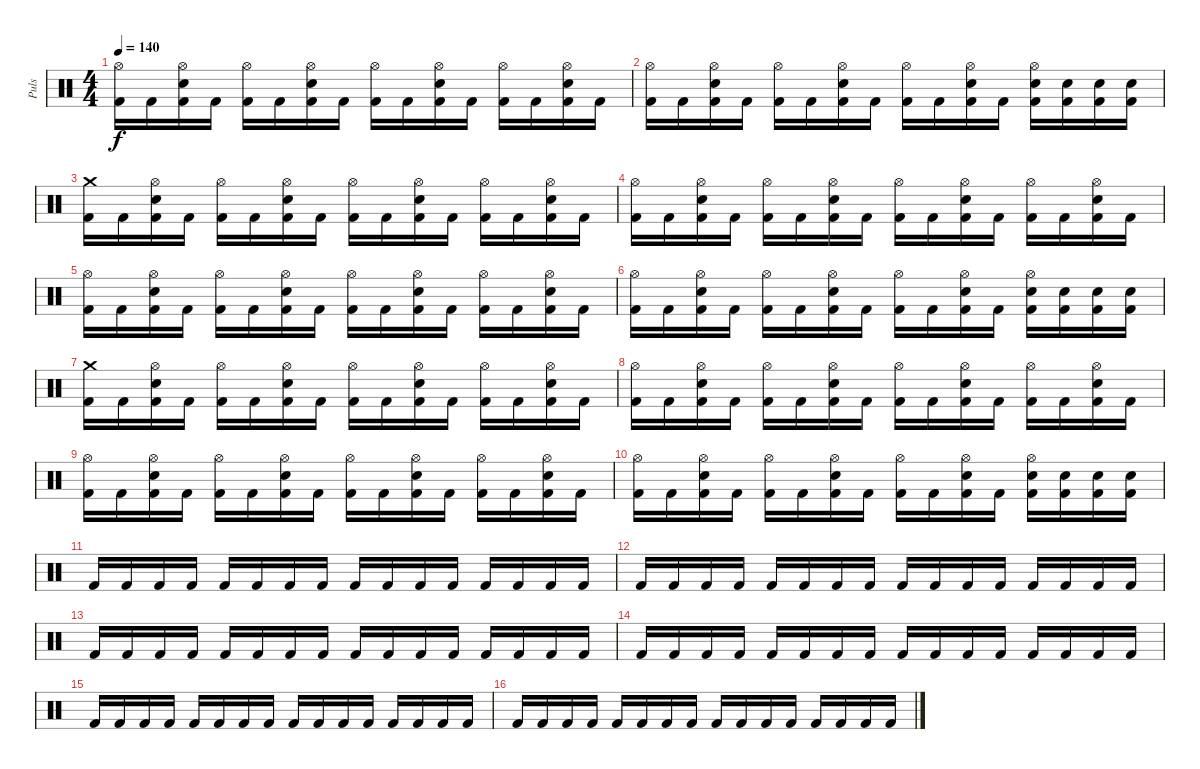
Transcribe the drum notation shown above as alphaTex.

\track ("Puls" "Puls") {instrument percussion}
\staff {score}
\articulation defaults
\ts (4 4)
\tempo 140
\clef neutral
\ks c
("Hi-Hat (open)" "Kick (hit) 2").16{dy f} "Kick (hit) 2".16 ("Hi-Hat (open)" "Snare (hit) 2" "Kick (hit) 2").16 "Kick (hit) 2".16 ("Hi-Hat (open)" "Kick (hit) 2").16 "Kick (hit) 2".16 ("Hi-Hat (open)" "Snare (hit) 2" "Kick (hit) 2").16 "Kick (hit) 2".16 ("Hi-Hat (open)" "Kick (hit) 2").16 "Kick (hit) 2".16 ("Hi-Hat (open)" "Snare (hit) 2" "Kick (hit) 2").16 "Kick (hit) 2".16 ("Hi-Hat (open)" "Kick (hit) 2").16 "Kick (hit) 2".16 ("Hi-Hat (open)" "Snare (hit) 2" "Kick (hit) 2").16 "Kick (hit) 2".16 |
("Hi-Hat (open)" "Kick (hit) 2").16 "Kick (hit) 2".16 ("Hi-Hat (open)" "Snare (hit) 2" "Kick (hit) 2").16 "Kick (hit) 2".16 ("Hi-Hat (open)" "Kick (hit) 2").16 "Kick (hit) 2".16 ("Hi-Hat (open)" "Snare (hit) 2" "Kick (hit) 2").16 "Kick (hit) 2".16 ("Hi-Hat (open)" "Kick (hit) 2").16 "Kick (hit) 2".16 ("Hi-Hat (open)" "Snare (hit) 2" "Kick (hit) 2").16 "Kick (hit) 2".16 ("Hi-Hat (open)" "Snare (hit) 2" "Kick (hit) 2").16 ("Snare (hit) 2" "Kick (hit) 2").16 ("Snare (hit) 2" "Kick (hit) 2").16 ("Snare (hit) 2" "Kick (hit) 2").16 |
("Crash medium (hit)" "Kick (hit) 2").16 "Kick (hit) 2".16 ("Hi-Hat (open)" "Snare (hit) 2" "Kick (hit) 2").16 "Kick (hit) 2".16 ("Hi-Hat (open)" "Kick (hit) 2").16 "Kick (hit) 2".16 ("Hi-Hat (open)" "Snare (hit) 2" "Kick (hit) 2").16 "Kick (hit) 2".16 ("Hi-Hat (open)" "Kick (hit) 2").16 "Kick (hit) 2".16 ("Hi-Hat (open)" "Snare (hit) 2" "Kick (hit) 2").16 "Kick (hit) 2".16 ("Hi-Hat (open)" "Kick (hit) 2").16 "Kick (hit) 2".16 ("Hi-Hat (open)" "Snare (hit) 2" "Kick (hit) 2").16 "Kick (hit) 2".16 |
("Hi-Hat (open)" "Kick (hit) 2").16 "Kick (hit) 2".16 ("Hi-Hat (open)" "Snare (hit) 2" "Kick (hit) 2").16 "Kick (hit) 2".16 ("Hi-Hat (open)" "Kick (hit) 2").16 "Kick (hit) 2".16 ("Hi-Hat (open)" "Snare (hit) 2" "Kick (hit) 2").16 "Kick (hit) 2".16 ("Hi-Hat (open)" "Kick (hit) 2").16 "Kick (hit) 2".16 ("Hi-Hat (open)" "Snare (hit) 2" "Kick (hit) 2").16 "Kick (hit) 2".16 ("Hi-Hat (open)" "Kick (hit) 2").16 "Kick (hit) 2".16 ("Hi-Hat (open)" "Snare (hit) 2" "Kick (hit) 2").16 "Kick (hit) 2".16 |
("Hi-Hat (open)" "Kick (hit) 2").16 "Kick (hit) 2".16 ("Hi-Hat (open)" "Snare (hit) 2" "Kick (hit) 2").16 "Kick (hit) 2".16 ("Hi-Hat (open)" "Kick (hit) 2").16 "Kick (hit) 2".16 ("Hi-Hat (open)" "Snare (hit) 2" "Kick (hit) 2").16 "Kick (hit) 2".16 ("Hi-Hat (open)" "Kick (hit) 2").16 "Kick (hit) 2".16 ("Hi-Hat (open)" "Snare (hit) 2" "Kick (hit) 2").16 "Kick (hit) 2".16 ("Hi-Hat (open)" "Kick (hit) 2").16 "Kick (hit) 2".16 ("Hi-Hat (open)" "Snare (hit) 2" "Kick (hit) 2").16 "Kick (hit) 2".16 |
("Hi-Hat (open)" "Kick (hit) 2").16 "Kick (hit) 2".16 ("Hi-Hat (open)" "Snare (hit) 2" "Kick (hit) 2").16 "Kick (hit) 2".16 ("Hi-Hat (open)" "Kick (hit) 2").16 "Kick (hit) 2".16 ("Hi-Hat (open)" "Snare (hit) 2" "Kick (hit) 2").16 "Kick (hit) 2".16 ("Hi-Hat (open)" "Kick (hit) 2").16 "Kick (hit) 2".16 ("Hi-Hat (open)" "Snare (hit) 2" "Kick (hit) 2").16 "Kick (hit) 2".16 ("Hi-Hat (open)" "Snare (hit) 2" "Kick (hit) 2").16 ("Snare (hit) 2" "Kick (hit) 2").16 ("Snare (hit) 2" "Kick (hit) 2").16 ("Snare (hit) 2" "Kick (hit) 2").16 |
("Crash medium (hit)" "Kick (hit) 2").16 "Kick (hit) 2".16 ("Hi-Hat (open)" "Snare (hit) 2" "Kick (hit) 2").16 "Kick (hit) 2".16 ("Hi-Hat (open)" "Kick (hit) 2").16 "Kick (hit) 2".16 ("Hi-Hat (open)" "Snare (hit) 2" "Kick (hit) 2").16 "Kick (hit) 2".16 ("Hi-Hat (open)" "Kick (hit) 2").16 "Kick (hit) 2".16 ("Hi-Hat (open)" "Snare (hit) 2" "Kick (hit) 2").16 "Kick (hit) 2".16 ("Hi-Hat (open)" "Kick (hit) 2").16 "Kick (hit) 2".16 ("Hi-Hat (open)" "Snare (hit) 2" "Kick (hit) 2").16 "Kick (hit) 2".16 |
("Hi-Hat (open)" "Kick (hit) 2").16 "Kick (hit) 2".16 ("Hi-Hat (open)" "Snare (hit) 2" "Kick (hit) 2").16 "Kick (hit) 2".16 ("Hi-Hat (open)" "Kick (hit) 2").16 "Kick (hit) 2".16 ("Hi-Hat (open)" "Snare (hit) 2" "Kick (hit) 2").16 "Kick (hit) 2".16 ("Hi-Hat (open)" "Kick (hit) 2").16 "Kick (hit) 2".16 ("Hi-Hat (open)" "Snare (hit) 2" "Kick (hit) 2").16 "Kick (hit) 2".16 ("Hi-Hat (open)" "Kick (hit) 2").16 "Kick (hit) 2".16 ("Hi-Hat (open)" "Snare (hit) 2" "Kick (hit) 2").16 "Kick (hit) 2".16 |
("Hi-Hat (open)" "Kick (hit) 2").16 "Kick (hit) 2".16 ("Hi-Hat (open)" "Snare (hit) 2" "Kick (hit) 2").16 "Kick (hit) 2".16 ("Hi-Hat (open)" "Kick (hit) 2").16 "Kick (hit) 2".16 ("Hi-Hat (open)" "Snare (hit) 2" "Kick (hit) 2").16 "Kick (hit) 2".16 ("Hi-Hat (open)" "Kick (hit) 2").16 "Kick (hit) 2".16 ("Hi-Hat (open)" "Snare (hit) 2" "Kick (hit) 2").16 "Kick (hit) 2".16 ("Hi-Hat (open)" "Kick (hit) 2").16 "Kick (hit) 2".16 ("Hi-Hat (open)" "Snare (hit) 2" "Kick (hit) 2").16 "Kick (hit) 2".16 |
("Hi-Hat (open)" "Kick (hit) 2").16 "Kick (hit) 2".16 ("Hi-Hat (open)" "Snare (hit) 2" "Kick (hit) 2").16 "Kick (hit) 2".16 ("Hi-Hat (open)" "Kick (hit) 2").16 "Kick (hit) 2".16 ("Hi-Hat (open)" "Snare (hit) 2" "Kick (hit) 2").16 "Kick (hit) 2".16 ("Hi-Hat (open)" "Kick (hit) 2").16 "Kick (hit) 2".16 ("Hi-Hat (open)" "Snare (hit) 2" "Kick (hit) 2").16 "Kick (hit) 2".16 ("Hi-Hat (open)" "Snare (hit) 2" "Kick (hit) 2").16 ("Snare (hit) 2" "Kick (hit) 2").16 ("Snare (hit) 2" "Kick (hit) 2").16 ("Snare (hit) 2" "Kick (hit) 2").16 |
"Kick (hit) 2".16 "Kick (hit) 2".16 "Kick (hit) 2".16 "Kick (hit) 2".16 "Kick (hit) 2".16 "Kick (hit) 2".16 "Kick (hit) 2".16 "Kick (hit) 2".16 "Kick (hit) 2".16 "Kick (hit) 2".16 "Kick (hit) 2".16 "Kick (hit) 2".16 "Kick (hit) 2".16 "Kick (hit) 2".16 "Kick (hit) 2".16 "Kick (hit) 2".16 |
"Kick (hit) 2".16 "Kick (hit) 2".16 "Kick (hit) 2".16 "Kick (hit) 2".16 "Kick (hit) 2".16 "Kick (hit) 2".16 "Kick (hit) 2".16 "Kick (hit) 2".16 "Kick (hit) 2".16 "Kick (hit) 2".16 "Kick (hit) 2".16 "Kick (hit) 2".16 "Kick (hit) 2".16 "Kick (hit) 2".16 "Kick (hit) 2".16 "Kick (hit) 2".16 |
"Kick (hit) 2".16 "Kick (hit) 2".16 "Kick (hit) 2".16 "Kick (hit) 2".16 "Kick (hit) 2".16 "Kick (hit) 2".16 "Kick (hit) 2".16 "Kick (hit) 2".16 "Kick (hit) 2".16 "Kick (hit) 2".16 "Kick (hit) 2".16 "Kick (hit) 2".16 "Kick (hit) 2".16 "Kick (hit) 2".16 "Kick (hit) 2".16 "Kick (hit) 2".16 |
"Kick (hit) 2".16 "Kick (hit) 2".16 "Kick (hit) 2".16 "Kick (hit) 2".16 "Kick (hit) 2".16 "Kick (hit) 2".16 "Kick (hit) 2".16 "Kick (hit) 2".16 "Kick (hit) 2".16 "Kick (hit) 2".16 "Kick (hit) 2".16 "Kick (hit) 2".16 "Kick (hit) 2".16 "Kick (hit) 2".16 "Kick (hit) 2".16 "Kick (hit) 2".16 |
"Kick (hit) 2".16 "Kick (hit) 2".16 "Kick (hit) 2".16 "Kick (hit) 2".16 "Kick (hit) 2".16 "Kick (hit) 2".16 "Kick (hit) 2".16 "Kick (hit) 2".16 "Kick (hit) 2".16 "Kick (hit) 2".16 "Kick (hit) 2".16 "Kick (hit) 2".16 "Kick (hit) 2".16 "Kick (hit) 2".16 "Kick (hit) 2".16 "Kick (hit) 2".16 |
"Kick (hit) 2".16 "Kick (hit) 2".16 "Kick (hit) 2".16 "Kick (hit) 2".16 "Kick (hit) 2".16 "Kick (hit) 2".16 "Kick (hit) 2".16 "Kick (hit) 2".16 "Kick (hit) 2".16 "Kick (hit) 2".16 "Kick (hit) 2".16 "Kick (hit) 2".16 "Kick (hit) 2".16 "Kick (hit) 2".16 "Kick (hit) 2".16 "Kick (hit) 2".16
